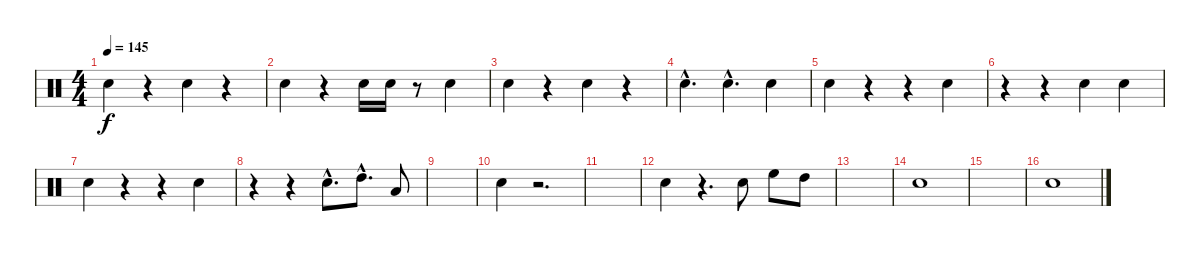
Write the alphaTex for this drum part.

\track "" {instrument percussion}
\staff {score}
\articulation defaults
\ts (4 4)
\tempo 145
\clef neutral
\ks c "Electric Snare (hit)".4{dy f}
r.4 "Electric Snare (hit)".4 r.4 |
"Electric Snare (hit)".4 r.4 "Electric Snare (hit)".16 "Electric Snare (hit)".16 r.8 "Electric Snare (hit)".4 |
"Electric Snare (hit)".4 r.4 "Electric Snare (hit)".4 r.4 |
"Electric Snare (hit)"{hac}.4{d} "Electric Snare (hit)"{hac}.4{d} "Electric Snare (hit)".4 |
"Electric Snare (hit)".4 r.4 r.4 "Electric Snare (hit)".4 |
r.4 r.4 "Electric Snare (hit)".4 "Electric Snare (hit)".4 |
"Electric Snare (hit)".4 r.4 r.4 "Electric Snare (hit)".4 |
r.4 r.4 "Electric Snare (hit)"{hac}.8{d} "High Tom (hit)"{hac}.8{d} "Low Tom (hit)".8 |
|
"Electric Snare (hit)".4 r.2{d} |
|
"Electric Snare (hit)".4 r.4{d} "Electric Snare (hit)".8 "High Floor Tom (hit)".8 "High Tom (hit)".8 |
|
"Electric Snare (hit)".1 |
|
"Electric Snare (hit)".1
